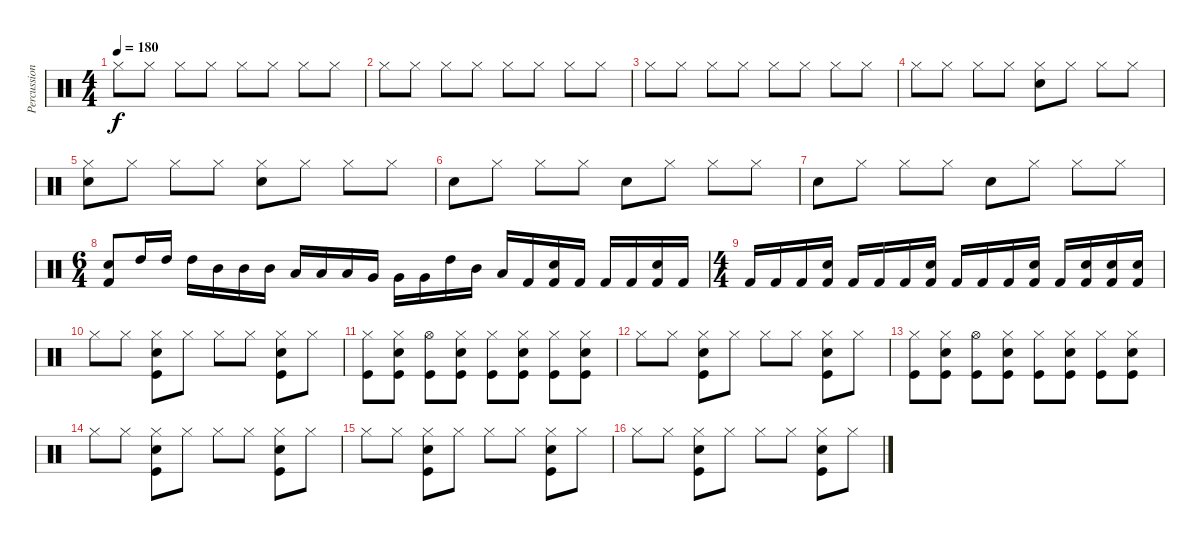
\track ("Percussions" "Percussion") {instrument percussion}
\staff {score}
\articulation defaults
\ts (4 4)
\tempo 180
\clef neutral
\ks c "Hi-Hat (closed)".8{dy f} "Hi-Hat (closed)".8 "Hi-Hat (closed)".8 "Hi-Hat (closed)".8 "Hi-Hat (closed)".8 "Hi-Hat (closed)".8 "Hi-Hat (closed)".8 "Hi-Hat (closed)".8
|
"Hi-Hat (closed)".8 "Hi-Hat (closed)".8 "Hi-Hat (closed)".8 "Hi-Hat (closed)".8 "Hi-Hat (closed)".8 "Hi-Hat (closed)".8 "Hi-Hat (closed)".8 "Hi-Hat (closed)".8 |
"Hi-Hat (closed)".8 "Hi-Hat (closed)".8 "Hi-Hat (closed)".8 "Hi-Hat (closed)".8 "Hi-Hat (closed)".8 "Hi-Hat (closed)".8 "Hi-Hat (closed)".8 "Hi-Hat (closed)".8 |
"Hi-Hat (closed)".8 "Hi-Hat (closed)".8 "Hi-Hat (closed)".8 "Hi-Hat (closed)".8 ("Hi-Hat (closed)" "Electric Snare (hit)").8 "Hi-Hat (closed)".8 "Hi-Hat (closed)".8 "Hi-Hat (closed)".8 |
("Hi-Hat (closed)" "Electric Snare (hit)").8 "Hi-Hat (closed)".8 "Hi-Hat (closed)".8 "Hi-Hat (closed)".8 ("Hi-Hat (closed)" "Electric Snare (hit)").8 "Hi-Hat (closed)".8 "Hi-Hat (closed)".8 "Hi-Hat (closed)".8 |
"Electric Snare (hit)".8 "Hi-Hat (closed)".8 "Hi-Hat (closed)".8 "Hi-Hat (closed)".8 "Electric Snare (hit)".8 "Hi-Hat (closed)".8 "Hi-Hat (closed)".8 "Hi-Hat (closed)".8 |
"Electric Snare (hit)".8 "Hi-Hat (closed)".8 "Hi-Hat (closed)".8 "Hi-Hat (closed)".8 "Electric Snare (hit)".8 "Hi-Hat (closed)".8 "Hi-Hat (closed)".8 "Hi-Hat (closed)".8 |
\ts (6 4)
("Kick (hit) 2" "Electric Snare (hit)").8 "High Tom (hit)".16 "High Tom (hit)".16 "High Tom (hit)".16 "Mid Tom (hit)".16 "Mid Tom (hit)".16 "Mid Tom (hit)".16 "Low Tom (hit)".16 "Low Tom (hit)".16 "Low Tom (hit)".16 "Very Low Tom (hit)".16 "Very Low Tom (hit)".16 "Very Low Tom (hit)".16 "High Tom (hit)".16 "Mid Tom (hit)".16 "Low Tom (hit)".16 "Kick (hit) 2".16 ("Electric Snare (hit)" "Kick (hit) 2").16 "Kick (hit) 2".16 "Kick (hit) 2".16 "Kick (hit) 2".16 ("Electric Snare (hit)" "Kick (hit) 2").16 "Kick (hit) 2".16 |
\ts (4 4)
"Kick (hit) 2".16 "Kick (hit) 2".16 "Kick (hit) 2".16 ("Electric Snare (hit)" "Kick (hit) 2").16 "Kick (hit) 2".16 "Kick (hit) 2".16 "Kick (hit) 2".16 ("Electric Snare (hit)" "Kick (hit) 2").16 "Kick (hit) 2".16 "Kick (hit) 2".16 "Kick (hit) 2".16 ("Electric Snare (hit)" "Kick (hit) 2").16 "Kick (hit) 2".16 ("Electric Snare (hit)" "Kick (hit) 2").16 ("Electric Snare (hit)" "Kick (hit) 2").16 ("Electric Snare (hit)" "Kick (hit) 2").16 |
"Hi-Hat (closed)".8 "Hi-Hat (closed)".8 ("Hi-Hat (closed)" "Electric Snare (hit)" "Kick (hit)").8 "Hi-Hat (closed)".8 "Hi-Hat (closed)".8 "Hi-Hat (closed)".8 ("Hi-Hat (closed)" "Electric Snare (hit)" "Kick (hit)").8 "Hi-Hat (closed)".8 |
("Hi-Hat (closed)" "Kick (hit)").8 ("Electric Snare (hit)" "Hi-Hat (closed)" "Kick (hit)").8 ("Hi-Hat (open)" "Kick (hit)").8 ("Electric Snare (hit)" "Hi-Hat (closed)" "Kick (hit)").8 ("Hi-Hat (closed)" "Kick (hit)").8 ("Electric Snare (hit)" "Hi-Hat (closed)" "Kick (hit)").8 ("Hi-Hat (closed)" "Kick (hit)").8 ("Electric Snare (hit)" "Hi-Hat (closed)" "Kick (hit)").8 |
"Hi-Hat (closed)".8 "Hi-Hat (closed)".8 ("Hi-Hat (closed)" "Electric Snare (hit)" "Kick (hit)").8 "Hi-Hat (closed)".8 "Hi-Hat (closed)".8 "Hi-Hat (closed)".8 ("Hi-Hat (closed)" "Electric Snare (hit)" "Kick (hit)").8 "Hi-Hat (closed)".8 |
("Hi-Hat (closed)" "Kick (hit)").8 ("Electric Snare (hit)" "Hi-Hat (closed)" "Kick (hit)").8 ("Hi-Hat (open)" "Kick (hit)").8 ("Electric Snare (hit)" "Hi-Hat (closed)" "Kick (hit)").8 ("Hi-Hat (closed)" "Kick (hit)").8 ("Electric Snare (hit)" "Hi-Hat (closed)" "Kick (hit)").8 ("Hi-Hat (closed)" "Kick (hit)").8 ("Electric Snare (hit)" "Hi-Hat (closed)" "Kick (hit)").8 |
"Hi-Hat (closed)".8 "Hi-Hat (closed)".8 ("Hi-Hat (closed)" "Electric Snare (hit)" "Kick (hit)").8 "Hi-Hat (closed)".8 "Hi-Hat (closed)".8 "Hi-Hat (closed)".8 ("Hi-Hat (closed)" "Electric Snare (hit)" "Kick (hit)").8 "Hi-Hat (closed)".8 |
"Hi-Hat (closed)".8 "Hi-Hat (closed)".8 ("Hi-Hat (closed)" "Electric Snare (hit)" "Kick (hit)").8 "Hi-Hat (closed)".8 "Hi-Hat (closed)".8 "Hi-Hat (closed)".8 ("Hi-Hat (closed)" "Electric Snare (hit)" "Kick (hit)").8 "Hi-Hat (closed)".8 |
"Hi-Hat (closed)".8 "Hi-Hat (closed)".8 ("Hi-Hat (closed)" "Electric Snare (hit)" "Kick (hit)").8 "Hi-Hat (closed)".8 "Hi-Hat (closed)".8 "Hi-Hat (closed)".8 ("Hi-Hat (closed)" "Electric Snare (hit)" "Kick (hit)").8 "Hi-Hat (closed)".8
